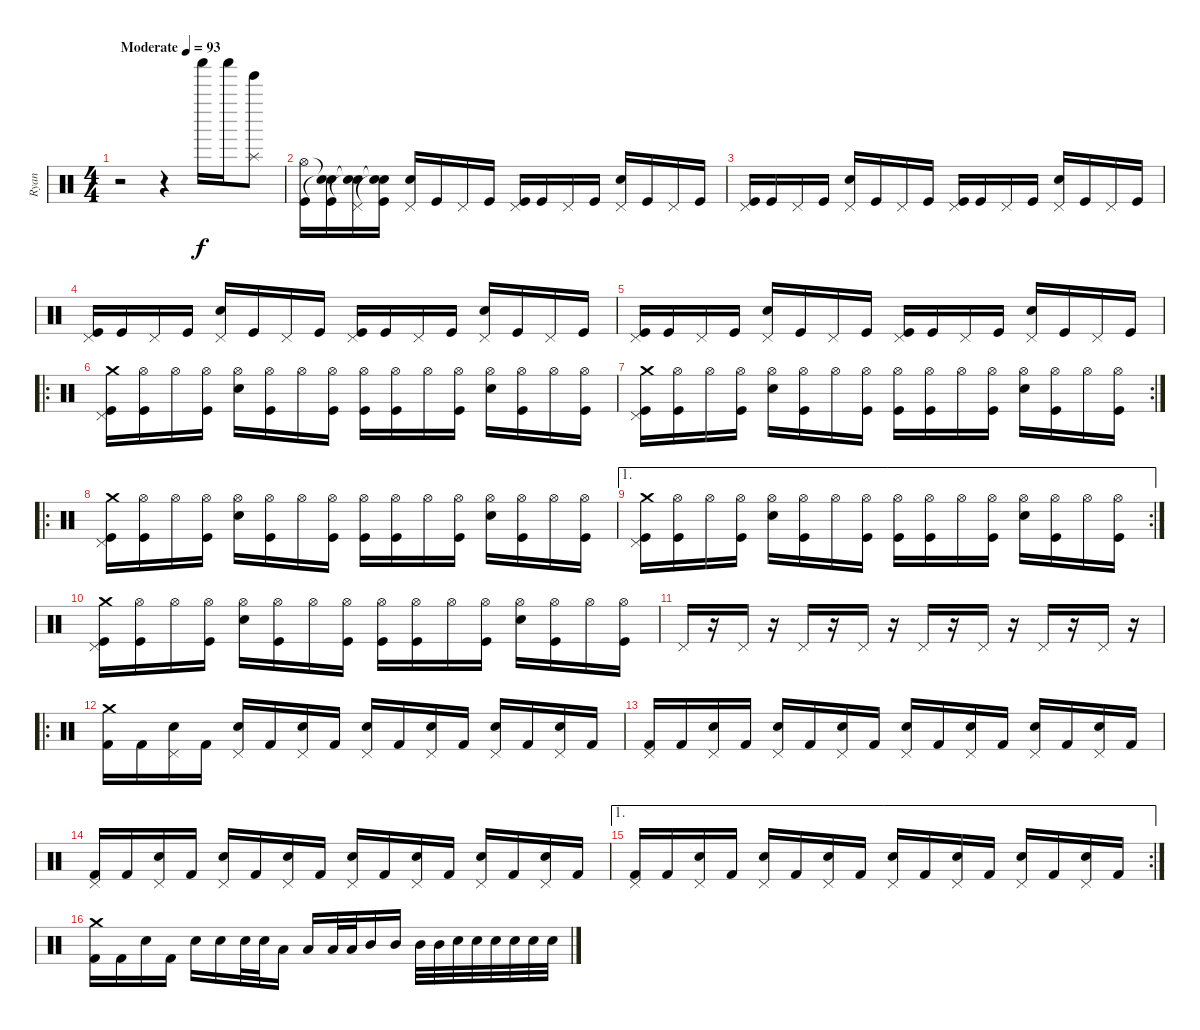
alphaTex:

\track ("Ryan" "Ryan") {instrument percussion}
\staff {score}
\articulation defaults
\ts (4 4)
\tempo (93 "Moderate")
\clef neutral
\ks c
r.2{dy f} r.4 "Shaker (hit)".16 "Shaker (hit)".16 ("Splash (hit)" "Tinkle Bell (hit)").8 |
("Hi-Hat (open)" "Kick (hit)").16 ("Snare (hit)"{t} "Snare (hit)"{t} "Kick (hit)").16 ("Snare (hit)"{t} "Pedal Hi-Hat (hit)" "Snare (hit)"{t}).16 ("Snare (hit)"{t} "Snare (hit)"{t} "Kick (hit)").16 ("Pedal Hi-Hat (hit)" "Electric Snare (hit)").16 "Kick (hit)".16 "Pedal Hi-Hat (hit)".16 "Kick (hit)".16 ("Pedal Hi-Hat (hit)" "Kick (hit)").16 "Kick (hit)".16 "Pedal Hi-Hat (hit)".16 "Kick (hit)".16 ("Pedal Hi-Hat (hit)" "Electric Snare (hit)").16 "Kick (hit)".16 "Pedal Hi-Hat (hit)".16 "Kick (hit)".16 |
("Pedal Hi-Hat (hit)" "Kick (hit)").16 "Kick (hit)".16 "Pedal Hi-Hat (hit)".16 "Kick (hit)".16 ("Pedal Hi-Hat (hit)" "Electric Snare (hit)").16 "Kick (hit)".16 "Pedal Hi-Hat (hit)".16 "Kick (hit)".16 ("Pedal Hi-Hat (hit)" "Kick (hit)").16 "Kick (hit)".16 "Pedal Hi-Hat (hit)".16 "Kick (hit)".16 ("Pedal Hi-Hat (hit)" "Electric Snare (hit)").16 "Kick (hit)".16 "Pedal Hi-Hat (hit)".16 "Kick (hit)".16 |
("Pedal Hi-Hat (hit)" "Kick (hit)").16 "Kick (hit)".16 "Pedal Hi-Hat (hit)".16 "Kick (hit)".16 ("Pedal Hi-Hat (hit)" "Electric Snare (hit)").16 "Kick (hit)".16 "Pedal Hi-Hat (hit)".16 "Kick (hit)".16 ("Pedal Hi-Hat (hit)" "Kick (hit)").16 "Kick (hit)".16 "Pedal Hi-Hat (hit)".16 "Kick (hit)".16 ("Pedal Hi-Hat (hit)" "Electric Snare (hit)").16 "Kick (hit)".16 "Pedal Hi-Hat (hit)".16 "Kick (hit)".16 |
("Pedal Hi-Hat (hit)" "Kick (hit)").16 "Kick (hit)".16 "Pedal Hi-Hat (hit)".16 "Kick (hit)".16 ("Pedal Hi-Hat (hit)" "Electric Snare (hit)").16 "Kick (hit)".16 "Pedal Hi-Hat (hit)".16 "Kick (hit)".16 ("Pedal Hi-Hat (hit)" "Kick (hit)").16 "Kick (hit)".16 "Pedal Hi-Hat (hit)".16 "Kick (hit)".16 ("Pedal Hi-Hat (hit)" "Electric Snare (hit)").16 "Kick (hit)".16 "Pedal Hi-Hat (hit)".16 "Kick (hit)".16 |
\ro
("Crash medium (hit)" "Pedal Hi-Hat (hit)" "Kick (hit)").16 ("Hi-Hat (open)" "Kick (hit)").16 "Hi-Hat (open)".16 ("Hi-Hat (open)" "Kick (hit)").16 ("Hi-Hat (open)" "Electric Snare (hit)").16 ("Hi-Hat (open)" "Kick (hit)").16 "Hi-Hat (open)".16 ("Hi-Hat (open)" "Kick (hit)").16 ("Hi-Hat (open)" "Kick (hit)").16 ("Hi-Hat (open)" "Kick (hit)").16 "Hi-Hat (open)".16 ("Hi-Hat (open)" "Kick (hit)").16 ("Hi-Hat (open)" "Electric Snare (hit)").16 ("Hi-Hat (open)" "Kick (hit)").16 "Hi-Hat (open)".16 ("Hi-Hat (open)" "Kick (hit)").16 |
\rc 2
("Crash medium (hit)" "Pedal Hi-Hat (hit)" "Kick (hit)").16 ("Hi-Hat (open)" "Kick (hit)").16 "Hi-Hat (open)".16 ("Hi-Hat (open)" "Kick (hit)").16 ("Hi-Hat (open)" "Electric Snare (hit)").16 ("Hi-Hat (open)" "Kick (hit)").16 "Hi-Hat (open)".16 ("Hi-Hat (open)" "Kick (hit)").16 ("Hi-Hat (open)" "Kick (hit)").16 ("Hi-Hat (open)" "Kick (hit)").16 "Hi-Hat (open)".16 ("Hi-Hat (open)" "Kick (hit)").16 ("Hi-Hat (open)" "Electric Snare (hit)").16 ("Hi-Hat (open)" "Kick (hit)").16 "Hi-Hat (open)".16 ("Hi-Hat (open)" "Kick (hit)").16 |
\ro
("Crash medium (hit)" "Pedal Hi-Hat (hit)" "Kick (hit)").16 ("Hi-Hat (open)" "Kick (hit)").16 "Hi-Hat (open)".16 ("Hi-Hat (open)" "Kick (hit)").16 ("Hi-Hat (open)" "Electric Snare (hit)").16 ("Hi-Hat (open)" "Kick (hit)").16 "Hi-Hat (open)".16 ("Hi-Hat (open)" "Kick (hit)").16 ("Hi-Hat (open)" "Kick (hit)").16 ("Hi-Hat (open)" "Kick (hit)").16 "Hi-Hat (open)".16 ("Hi-Hat (open)" "Kick (hit)").16 ("Hi-Hat (open)" "Electric Snare (hit)").16 ("Hi-Hat (open)" "Kick (hit)").16 "Hi-Hat (open)".16 ("Hi-Hat (open)" "Kick (hit)").16 |
\ae 1
\rc 2
("Crash medium (hit)" "Pedal Hi-Hat (hit)" "Kick (hit)").16 ("Hi-Hat (open)" "Kick (hit)").16 "Hi-Hat (open)".16 ("Hi-Hat (open)" "Kick (hit)").16 ("Hi-Hat (open)" "Electric Snare (hit)").16 ("Hi-Hat (open)" "Kick (hit)").16 "Hi-Hat (open)".16 ("Hi-Hat (open)" "Kick (hit)").16 ("Hi-Hat (open)" "Kick (hit)").16 ("Hi-Hat (open)" "Kick (hit)").16 "Hi-Hat (open)".16 ("Hi-Hat (open)" "Kick (hit)").16 ("Hi-Hat (open)" "Electric Snare (hit)").16 ("Hi-Hat (open)" "Kick (hit)").16 "Hi-Hat (open)".16 ("Hi-Hat (open)" "Kick (hit)").16 |
("Crash medium (hit)" "Pedal Hi-Hat (hit)" "Kick (hit)").16 ("Hi-Hat (open)" "Kick (hit)").16 "Hi-Hat (open)".16 ("Hi-Hat (open)" "Kick (hit)").16 ("Hi-Hat (open)" "Electric Snare (hit)").16 ("Hi-Hat (open)" "Kick (hit)").16 "Hi-Hat (open)".16 ("Hi-Hat (open)" "Kick (hit)").16 ("Hi-Hat (open)" "Kick (hit)").16 ("Hi-Hat (open)" "Kick (hit)").16 "Hi-Hat (open)".16 ("Hi-Hat (open)" "Kick (hit)").16 ("Hi-Hat (open)" "Electric Snare (hit)").16 ("Hi-Hat (open)" "Kick (hit)").16 "Hi-Hat (open)".16 ("Hi-Hat (open)" "Kick (hit)").16 |
"Pedal Hi-Hat (hit)".16 r.16 "Pedal Hi-Hat (hit)".16 r.16 "Pedal Hi-Hat (hit)".16 r.16 "Pedal Hi-Hat (hit)".16 r.16 "Pedal Hi-Hat (hit)".16 r.16 "Pedal Hi-Hat (hit)".16 r.16 "Pedal Hi-Hat (hit)".16 r.16 "Pedal Hi-Hat (hit)".16 r.16 |
\ro
("Crash medium (hit)" "Kick (hit) 2").16 "Kick (hit) 2".16 ("Pedal Hi-Hat (hit)" "Electric Snare (hit)").16 "Kick (hit) 2".16 ("Pedal Hi-Hat (hit)" "Electric Snare (hit)").16 "Kick (hit) 2".16 ("Pedal Hi-Hat (hit)" "Electric Snare (hit)").16 "Kick (hit) 2".16 ("Pedal Hi-Hat (hit)" "Electric Snare (hit)").16 "Kick (hit) 2".16 ("Pedal Hi-Hat (hit)" "Electric Snare (hit)").16 "Kick (hit) 2".16 ("Pedal Hi-Hat (hit)" "Electric Snare (hit)").16 "Kick (hit) 2".16 ("Pedal Hi-Hat (hit)" "Electric Snare (hit)").16 "Kick (hit) 2".16 |
("Pedal Hi-Hat (hit)" "Kick (hit) 2").16 "Kick (hit) 2".16 ("Pedal Hi-Hat (hit)" "Electric Snare (hit)").16 "Kick (hit) 2".16 ("Pedal Hi-Hat (hit)" "Electric Snare (hit)").16 "Kick (hit) 2".16 ("Pedal Hi-Hat (hit)" "Electric Snare (hit)").16 "Kick (hit) 2".16 ("Pedal Hi-Hat (hit)" "Electric Snare (hit)").16 "Kick (hit) 2".16 ("Pedal Hi-Hat (hit)" "Electric Snare (hit)").16 "Kick (hit) 2".16 ("Pedal Hi-Hat (hit)" "Electric Snare (hit)").16 "Kick (hit) 2".16 ("Pedal Hi-Hat (hit)" "Electric Snare (hit)").16 "Kick (hit) 2".16 |
("Pedal Hi-Hat (hit)" "Kick (hit) 2").16 "Kick (hit) 2".16 ("Pedal Hi-Hat (hit)" "Electric Snare (hit)").16 "Kick (hit) 2".16 ("Pedal Hi-Hat (hit)" "Electric Snare (hit)").16 "Kick (hit) 2".16 ("Pedal Hi-Hat (hit)" "Electric Snare (hit)").16 "Kick (hit) 2".16 ("Pedal Hi-Hat (hit)" "Electric Snare (hit)").16 "Kick (hit) 2".16 ("Pedal Hi-Hat (hit)" "Electric Snare (hit)").16 "Kick (hit) 2".16 ("Pedal Hi-Hat (hit)" "Electric Snare (hit)").16 "Kick (hit) 2".16 ("Pedal Hi-Hat (hit)" "Electric Snare (hit)").16 "Kick (hit) 2".16 |
\ae 1
\rc 2
("Pedal Hi-Hat (hit)" "Kick (hit) 2").16 "Kick (hit) 2".16 ("Pedal Hi-Hat (hit)" "Electric Snare (hit)").16 "Kick (hit) 2".16 ("Pedal Hi-Hat (hit)" "Electric Snare (hit)").16 "Kick (hit) 2".16 ("Pedal Hi-Hat (hit)" "Electric Snare (hit)").16 "Kick (hit) 2".16 ("Pedal Hi-Hat (hit)" "Electric Snare (hit)").16 "Kick (hit) 2".16 ("Pedal Hi-Hat (hit)" "Electric Snare (hit)").16 "Kick (hit) 2".16 ("Pedal Hi-Hat (hit)" "Electric Snare (hit)").16 "Kick (hit) 2".16 ("Pedal Hi-Hat (hit)" "Electric Snare (hit)").16 "Kick (hit) 2".16 |
("Crash medium (hit)" "Kick (hit) 2").16 "Kick (hit) 2".16 "Electric Snare (hit)".16 "Kick (hit) 2".16 "Electric Snare (hit)".16 "Electric Snare (hit)".16 "Electric Snare (hit)".32 "Electric Snare (hit)".32 "Low Tom (hit)".16 "Low Tom (hit)".16 "Low Tom (hit)".32 "Low Tom (hit)".32 "Mid Tom (hit)".16 "Mid Tom (hit)".16 "Mid Tom (hit)".32 "Mid Tom (hit)".32 "Electric Snare (hit)".32 "Electric Snare (hit)".32 "Electric Snare (hit)".32 "Electric Snare (hit)".32 "Electric Snare (hit)".32 "Electric Snare (hit)".32
